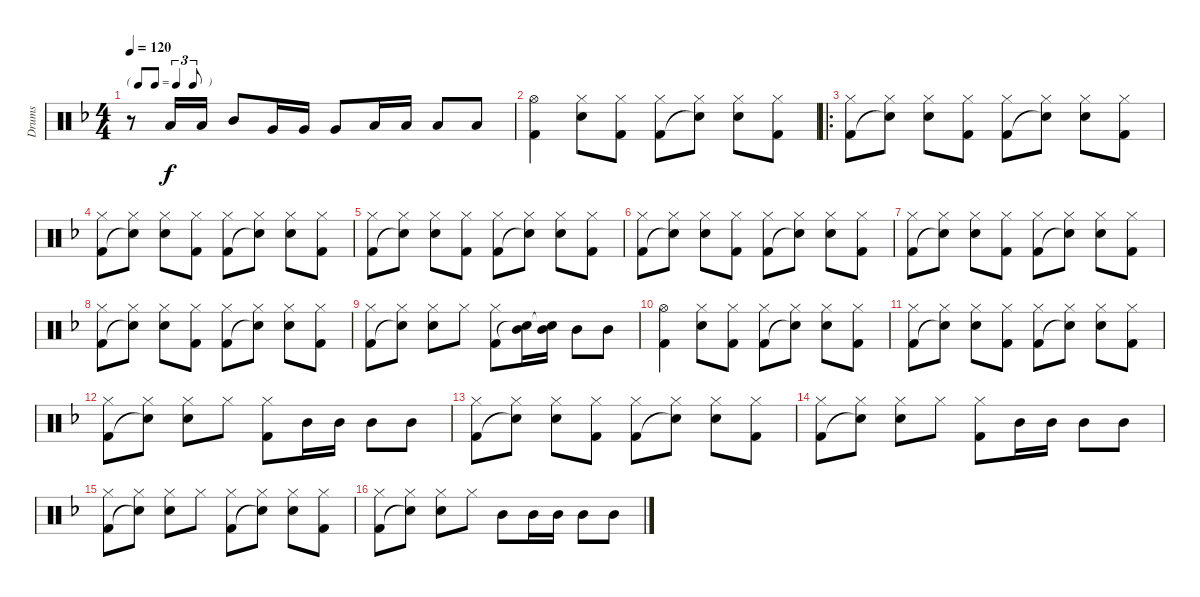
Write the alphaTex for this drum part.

\track ("Drums" "Drums") {instrument percussion}
\staff {score}
\articulation defaults
\ts (4 4)
\tf triplet8th
\tempo 120
\clef neutral
\ks f
r.8{dy f} "Low Tom (hit)".16 "Low Tom (hit)".16 "Mid Tom (hit)".8 "Very Low Tom (hit)".16 "Very Low Tom (hit)".16 "Very Low Tom (hit)".8 "Low Tom (hit)".16 "Low Tom (hit)".16 "Low Tom (hit)".8 "Low Tom (hit)".8 |
("Hi-Hat (open)" "Kick (hit) 2").4 ("Hi-Hat (closed)" "Snare (hit) 2").8 ("Hi-Hat (closed)" "Kick (hit) 2").8 ("Hi-Hat (closed)" "Kick (hit) 2").8 ("Hi-Hat (closed)" "Snare (hit)"{t}).8 ("Hi-Hat (closed)" "Snare (hit) 2").8 ("Hi-Hat (closed)" "Kick (hit) 2").8 |
\ro
("Hi-Hat (closed)" "Kick (hit) 2").8 ("Hi-Hat (closed)" "Snare (hit)"{t}).8 ("Hi-Hat (closed)" "Snare (hit) 2").8 ("Hi-Hat (closed)" "Kick (hit) 2").8 ("Hi-Hat (closed)" "Kick (hit) 2").8 ("Hi-Hat (closed)" "Snare (hit)"{t}).8 ("Hi-Hat (closed)" "Snare (hit) 2").8 ("Hi-Hat (closed)" "Kick (hit) 2").8 |
("Hi-Hat (closed)" "Kick (hit) 2").8 ("Hi-Hat (closed)" "Snare (hit)"{t}).8 ("Hi-Hat (closed)" "Snare (hit) 2").8 ("Hi-Hat (closed)" "Kick (hit) 2").8 ("Hi-Hat (closed)" "Kick (hit) 2").8 ("Hi-Hat (closed)" "Snare (hit)"{t}).8 ("Hi-Hat (closed)" "Snare (hit) 2").8 ("Hi-Hat (closed)" "Kick (hit) 2").8 |
("Hi-Hat (closed)" "Kick (hit) 2").8 ("Hi-Hat (closed)" "Snare (hit)"{t}).8 ("Hi-Hat (closed)" "Snare (hit) 2").8 ("Hi-Hat (closed)" "Kick (hit) 2").8 ("Hi-Hat (closed)" "Kick (hit) 2").8 ("Hi-Hat (closed)" "Snare (hit)"{t}).8 ("Hi-Hat (closed)" "Snare (hit) 2").8 ("Hi-Hat (closed)" "Kick (hit) 2").8 |
("Hi-Hat (closed)" "Kick (hit) 2").8 ("Hi-Hat (closed)" "Snare (hit)"{t}).8 ("Hi-Hat (closed)" "Snare (hit) 2").8 ("Hi-Hat (closed)" "Kick (hit) 2").8 ("Hi-Hat (closed)" "Kick (hit) 2").8 ("Hi-Hat (closed)" "Snare (hit)"{t}).8 ("Hi-Hat (closed)" "Snare (hit) 2").8 ("Hi-Hat (closed)" "Kick (hit) 2").8 |
("Hi-Hat (closed)" "Kick (hit) 2").8 ("Hi-Hat (closed)" "Snare (hit)"{t}).8 ("Hi-Hat (closed)" "Snare (hit) 2").8 ("Hi-Hat (closed)" "Kick (hit) 2").8 ("Hi-Hat (closed)" "Kick (hit) 2").8 ("Hi-Hat (closed)" "Snare (hit)"{t}).8 ("Hi-Hat (closed)" "Snare (hit) 2").8 ("Hi-Hat (closed)" "Kick (hit) 2").8 |
("Hi-Hat (closed)" "Kick (hit) 2").8 ("Hi-Hat (closed)" "Snare (hit)"{t}).8 ("Hi-Hat (closed)" "Snare (hit) 2").8 ("Hi-Hat (closed)" "Kick (hit) 2").8 ("Hi-Hat (closed)" "Kick (hit) 2").8 ("Hi-Hat (closed)" "Snare (hit)"{t}).8 ("Hi-Hat (closed)" "Snare (hit) 2").8 ("Hi-Hat (closed)" "Kick (hit) 2").8 |
("Hi-Hat (closed)" "Kick (hit) 2").8 ("Hi-Hat (closed)" "Snare (hit)"{t}).8 ("Hi-Hat (closed)" "Snare (hit) 2").8 "Hi-Hat (closed)".8 ("Hi-Hat (closed)" "Kick (hit) 2").8 ("Mid Tom (hit)" "Snare (hit)"{t}).16 ("Mid Tom (hit)" "Snare (hit)"{t}).16 "Mid Tom (hit)".8 "Mid Tom (hit)".8 |
("Hi-Hat (open)" "Kick (hit) 2").4 ("Hi-Hat (closed)" "Snare (hit) 2").8 ("Hi-Hat (closed)" "Kick (hit) 2").8 ("Hi-Hat (closed)" "Kick (hit) 2").8 ("Hi-Hat (closed)" "Snare (hit)"{t}).8 ("Hi-Hat (closed)" "Snare (hit) 2").8 ("Hi-Hat (closed)" "Kick (hit) 2").8 |
("Hi-Hat (closed)" "Kick (hit) 2").8 ("Hi-Hat (closed)" "Snare (hit)"{t}).8 ("Hi-Hat (closed)" "Snare (hit) 2").8 ("Hi-Hat (closed)" "Kick (hit) 2").8 ("Hi-Hat (closed)" "Kick (hit) 2").8 ("Hi-Hat (closed)" "Snare (hit)"{t}).8 ("Hi-Hat (closed)" "Snare (hit) 2").8 ("Hi-Hat (closed)" "Kick (hit) 2").8 |
("Hi-Hat (closed)" "Kick (hit) 2").8 ("Hi-Hat (closed)" "Snare (hit)"{t}).8 ("Hi-Hat (closed)" "Snare (hit) 2").8 "Hi-Hat (closed)".8 ("Hi-Hat (closed)" "Kick (hit) 2").8 "Mid Tom (hit)".16 "Mid Tom (hit)".16 "Mid Tom (hit)".8 "Mid Tom (hit)".8 |
("Hi-Hat (closed)" "Kick (hit) 2").8 ("Hi-Hat (closed)" "Snare (hit)"{t}).8 ("Hi-Hat (closed)" "Snare (hit) 2").8 ("Hi-Hat (closed)" "Kick (hit) 2").8 ("Hi-Hat (closed)" "Kick (hit) 2").8 ("Hi-Hat (closed)" "Snare (hit)"{t}).8 ("Hi-Hat (closed)" "Snare (hit) 2").8 ("Hi-Hat (closed)" "Kick (hit) 2").8 |
("Hi-Hat (closed)" "Kick (hit) 2").8 ("Hi-Hat (closed)" "Snare (hit)"{t}).8 ("Hi-Hat (closed)" "Snare (hit) 2").8 "Hi-Hat (closed)".8 ("Hi-Hat (closed)" "Kick (hit) 2").8 "Mid Tom (hit)".16 "Mid Tom (hit)".16 "Mid Tom (hit)".8 "Mid Tom (hit)".8 |
("Hi-Hat (closed)" "Kick (hit) 2").8 ("Hi-Hat (closed)" "Snare (hit)"{t}).8 ("Hi-Hat (closed)" "Snare (hit) 2").8 "Hi-Hat (closed)".8 ("Hi-Hat (closed)" "Kick (hit) 2").8 ("Hi-Hat (closed)" "Snare (hit)"{t}).8 ("Hi-Hat (closed)" "Snare (hit) 2").8 ("Hi-Hat (closed)" "Kick (hit) 2").8 |
("Hi-Hat (closed)" "Kick (hit) 2").8 ("Hi-Hat (closed)" "Snare (hit)"{t}).8 ("Hi-Hat (closed)" "Snare (hit) 2").8 "Hi-Hat (closed)".8 "Mid Tom (hit)".8 "Mid Tom (hit)".16 "Mid Tom (hit)".16 "Mid Tom (hit)".8 "Mid Tom (hit)".8
